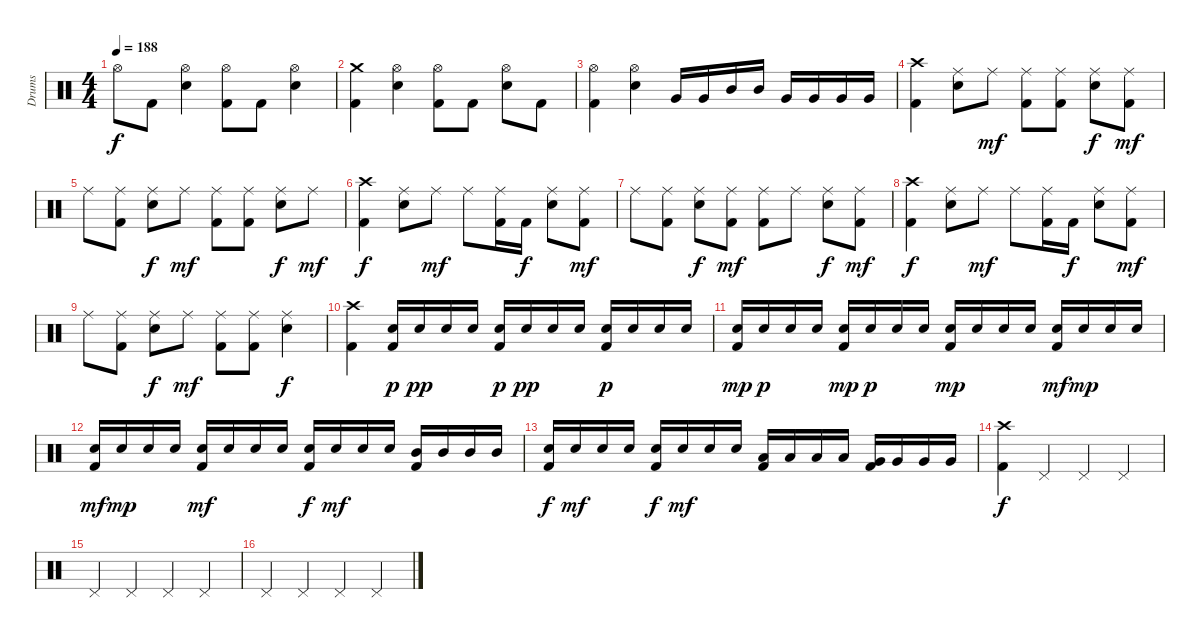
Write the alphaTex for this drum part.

\track ("Drums" "Drums") {instrument percussion}
\staff {score}
\articulation defaults
\ts (4 4)
\tempo 188
\clef neutral
\ks c "Hi-Hat (open)".8{dy f} "Kick (hit) 2".8
("Hi-Hat (open)" "Electric Snare (hit)").4 ("Hi-Hat (open)" "Kick (hit) 2").8 "Kick (hit) 2".8 ("Hi-Hat (open)" "Electric Snare (hit)").4 |
("Crash medium (hit)" "Kick (hit) 2").4 ("Hi-Hat (open)" "Electric Snare (hit)").4 ("Hi-Hat (open)" "Kick (hit) 2").8 "Kick (hit) 2".8 ("Hi-Hat (open)" "Electric Snare (hit)").8 "Kick (hit) 2".8 |
("Hi-Hat (open)" "Kick (hit) 2").4 ("Hi-Hat (open)" "Electric Snare (hit)").4 "Very Low Tom (hit)".16 "Very Low Tom (hit)".16 "Mid Tom (hit)".16 "Mid Tom (hit)".16 "Very Low Tom (hit)".16 "Very Low Tom (hit)".16 "Very Low Tom (hit)".16 "Very Low Tom (hit)".16 |
("Crash high (hit)" "Kick (hit) 2").4 ("Ride (middle)" "Electric Snare (hit)").8 "Ride (middle)".8{dy mf} ("Ride (middle)" "Kick (hit) 2").8 ("Ride (middle)" "Kick (hit) 2").8 ("Ride (middle)" "Electric Snare (hit)").8{dy f} ("Ride (middle)" "Kick (hit) 2").8{dy mf} |
"Ride (middle)".8 ("Ride (middle)" "Kick (hit) 2").8 ("Ride (middle)" "Electric Snare (hit)").8{dy f} "Ride (middle)".8{dy mf} ("Ride (middle)" "Kick (hit) 2").8 ("Ride (middle)" "Kick (hit) 2").8 ("Ride (middle)" "Electric Snare (hit)").8{dy f} "Ride (middle)".8{dy mf} |
("Crash high (hit)" "Kick (hit) 2").4{dy f} ("Ride (middle)" "Electric Snare (hit)").8 "Ride (middle)".8{dy mf} "Ride (middle)".8 ("Ride (middle)" "Kick (hit) 2").16 "Kick (hit) 2".16{dy f} ("Ride (middle)" "Electric Snare (hit)").8 ("Ride (middle)" "Kick (hit) 2").8{dy mf} |
"Ride (middle)".8 ("Ride (middle)" "Kick (hit) 2").8 ("Ride (middle)" "Electric Snare (hit)").8{dy f} ("Ride (middle)" "Kick (hit) 2").8{dy mf} ("Ride (middle)" "Kick (hit) 2").8 "Ride (middle)".8 ("Ride (middle)" "Electric Snare (hit)").8{dy f} ("Ride (middle)" "Kick (hit) 2").8{dy mf} |
("Crash high (hit)" "Kick (hit) 2").4{dy f} ("Ride (middle)" "Electric Snare (hit)").8 "Ride (middle)".8{dy mf} "Ride (middle)".8 ("Ride (middle)" "Kick (hit) 2").16 "Kick (hit) 2".16{dy f} ("Ride (middle)" "Electric Snare (hit)").8 ("Ride (middle)" "Kick (hit) 2").8{dy mf} |
"Ride (middle)".8 ("Ride (middle)" "Kick (hit) 2").8 ("Ride (middle)" "Electric Snare (hit)").8{dy f} "Ride (middle)".8{dy mf} ("Ride (middle)" "Kick (hit) 2").8 ("Ride (middle)" "Kick (hit) 2").8 ("Ride (middle)" "Electric Snare (hit)").4{dy f} |
("Crash high (hit)" "Kick (hit) 2").4 ("Electric Snare (hit)" "Kick (hit) 2").16{dy p} "Electric Snare (hit)".16{dy pp} "Electric Snare (hit)".16 "Electric Snare (hit)".16 ("Electric Snare (hit)" "Kick (hit) 2").16{dy p} "Electric Snare (hit)".16{dy pp} "Electric Snare (hit)".16 "Electric Snare (hit)".16 ("Electric Snare (hit)" "Kick (hit) 2").16{dy p} "Electric Snare (hit)".16 "Electric Snare (hit)".16 "Electric Snare (hit)".16 |
("Electric Snare (hit)" "Kick (hit) 2").16{dy mp} "Electric Snare (hit)".16{dy p} "Electric Snare (hit)".16 "Electric Snare (hit)".16 ("Electric Snare (hit)" "Kick (hit) 2").16{dy mp} "Electric Snare (hit)".16{dy p} "Electric Snare (hit)".16 "Electric Snare (hit)".16 ("Electric Snare (hit)" "Kick (hit) 2").16{dy mp} "Electric Snare (hit)".16 "Electric Snare (hit)".16 "Electric Snare (hit)".16 ("Electric Snare (hit)" "Kick (hit) 2").16{dy mf} "Electric Snare (hit)".16{dy mp} "Electric Snare (hit)".16 "Electric Snare (hit)".16 |
("Electric Snare (hit)" "Kick (hit) 2").16{dy mf} "Electric Snare (hit)".16{dy mp} "Electric Snare (hit)".16 "Electric Snare (hit)".16 ("Electric Snare (hit)" "Kick (hit) 2").16{dy mf} "Electric Snare (hit)".16 "Electric Snare (hit)".16 "Electric Snare (hit)".16 ("Electric Snare (hit)" "Kick (hit) 2").16{dy f} "Electric Snare (hit)".16{dy mf} "Electric Snare (hit)".16 "Electric Snare (hit)".16 ("Mid Tom (hit)" "Kick (hit) 2").16 "Mid Tom (hit)".16 "Mid Tom (hit)".16 "Mid Tom (hit)".16 |
("Electric Snare (hit)" "Kick (hit) 2").16{dy f} "Electric Snare (hit)".16{dy mf} "Electric Snare (hit)".16 "Electric Snare (hit)".16 ("Electric Snare (hit)" "Kick (hit) 2").16{dy f} "Electric Snare (hit)".16{dy mf} "Electric Snare (hit)".16 "Electric Snare (hit)".16 ("Low Tom (hit)" "Kick (hit) 2").16 "Low Tom (hit)".16 "Low Tom (hit)".16 "Low Tom (hit)".16 ("Very Low Tom (hit)" "Kick (hit) 2").16 "Very Low Tom (hit)".16 "Very Low Tom (hit)".16 "Very Low Tom (hit)".16 |
("Crash high (hit)" "Kick (hit) 2").4{dy f} "Pedal Hi-Hat (hit)".4 "Pedal Hi-Hat (hit)".4 "Pedal Hi-Hat (hit)".4 |
"Pedal Hi-Hat (hit)".4 "Pedal Hi-Hat (hit)".4 "Pedal Hi-Hat (hit)".4 "Pedal Hi-Hat (hit)".4 |
"Pedal Hi-Hat (hit)".4 "Pedal Hi-Hat (hit)".4 "Pedal Hi-Hat (hit)".4 "Pedal Hi-Hat (hit)".4
